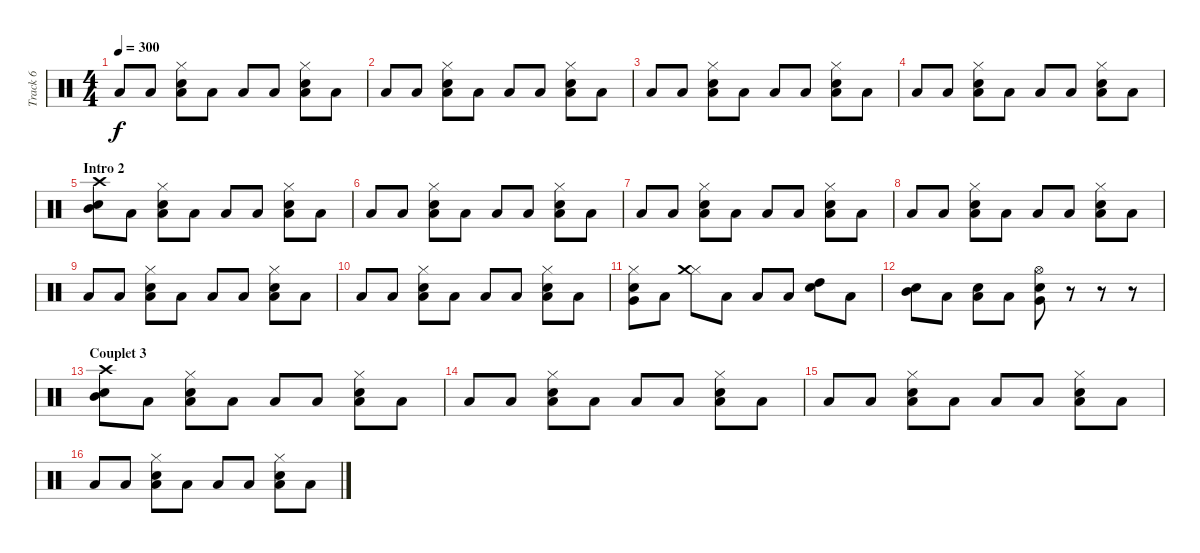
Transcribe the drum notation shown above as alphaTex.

\track ("Track 6" "Track 6") {instrument percussion}
\staff {score}
\articulation defaults
\ts (4 4)
\tempo 300
\clef neutral
\ks c "Low Floor Tom (hit)".8{dy f} "Low Floor Tom (hit)".8
("Electric Snare (hit)" "Low Tom (hit)" "Hi-Hat (closed)").8 "Low Floor Tom (hit)".8 "Low Floor Tom (hit)".8 "Low Floor Tom (hit)".8 ("Electric Snare (hit)" "Low Tom (hit)" "Hi-Hat (closed)").8 "Low Floor Tom (hit)".8 |
"Low Floor Tom (hit)".8 "Low Floor Tom (hit)".8 ("Electric Snare (hit)" "Low Tom (hit)" "Hi-Hat (closed)").8 "Low Floor Tom (hit)".8 "Low Floor Tom (hit)".8 "Low Floor Tom (hit)".8 ("Electric Snare (hit)" "Low Tom (hit)" "Hi-Hat (closed)").8 "Low Floor Tom (hit)".8 |
"Low Floor Tom (hit)".8 "Low Floor Tom (hit)".8 ("Electric Snare (hit)" "Low Tom (hit)" "Hi-Hat (closed)").8 "Low Floor Tom (hit)".8 "Low Floor Tom (hit)".8 "Low Floor Tom (hit)".8 ("Electric Snare (hit)" "Low Tom (hit)" "Hi-Hat (closed)").8 "Low Floor Tom (hit)".8 |
"Low Floor Tom (hit)".8 "Low Floor Tom (hit)".8 ("Electric Snare (hit)" "Low Tom (hit)" "Hi-Hat (closed)").8 "Low Floor Tom (hit)".8 "Low Floor Tom (hit)".8 "Low Floor Tom (hit)".8 ("Electric Snare (hit)" "Low Tom (hit)" "Hi-Hat (closed)").8 "Low Floor Tom (hit)".8 |
\section ("" "Intro 2")
("Snare (hit) 2" "Mid Tom (hit)" "Crash high (hit)").8 "Low Floor Tom (hit)".8 ("Electric Snare (hit)" "Low Tom (hit)" "Hi-Hat (closed)").8 "Low Floor Tom (hit)".8 "Low Floor Tom (hit)".8 "Low Floor Tom (hit)".8 ("Electric Snare (hit)" "Low Tom (hit)" "Hi-Hat (closed)").8 "Low Floor Tom (hit)".8 |
"Low Floor Tom (hit)".8 "Low Floor Tom (hit)".8 ("Electric Snare (hit)" "Low Tom (hit)" "Hi-Hat (closed)").8 "Low Floor Tom (hit)".8 "Low Floor Tom (hit)".8 "Low Floor Tom (hit)".8 ("Electric Snare (hit)" "Low Tom (hit)" "Hi-Hat (closed)").8 "Low Floor Tom (hit)".8 |
"Low Floor Tom (hit)".8 "Low Floor Tom (hit)".8 ("Electric Snare (hit)" "Low Tom (hit)" "Hi-Hat (closed)").8 "Low Floor Tom (hit)".8 "Low Floor Tom (hit)".8 "Low Floor Tom (hit)".8 ("Electric Snare (hit)" "Low Tom (hit)" "Hi-Hat (closed)").8 "Low Floor Tom (hit)".8 |
"Low Floor Tom (hit)".8 "Low Floor Tom (hit)".8 ("Electric Snare (hit)" "Low Tom (hit)" "Hi-Hat (closed)").8 "Low Floor Tom (hit)".8 "Low Floor Tom (hit)".8 "Low Floor Tom (hit)".8 ("Electric Snare (hit)" "Low Tom (hit)" "Hi-Hat (closed)").8 "Low Floor Tom (hit)".8 |
"Low Floor Tom (hit)".8 "Low Floor Tom (hit)".8 ("Electric Snare (hit)" "Low Tom (hit)" "Hi-Hat (closed)").8 "Low Floor Tom (hit)".8 "Low Floor Tom (hit)".8 "Low Floor Tom (hit)".8 ("Electric Snare (hit)" "Low Tom (hit)" "Hi-Hat (closed)").8 "Low Floor Tom (hit)".8 |
"Low Floor Tom (hit)".8 "Low Floor Tom (hit)".8 ("Electric Snare (hit)" "Low Tom (hit)" "Hi-Hat (closed)").8 "Low Floor Tom (hit)".8 "Low Floor Tom (hit)".8 "Low Floor Tom (hit)".8 ("Electric Snare (hit)" "Low Tom (hit)" "Hi-Hat (closed)").8 "Low Floor Tom (hit)".8 |
("Snare (hit) 2" "Very Low Tom (hit)" "Hi-Hat (closed)").8 "Low Floor Tom (hit)".8 ("Hi-Hat (closed)" "Crash medium (hit)").8 "Low Floor Tom (hit)".8 "Low Floor Tom (hit)".8 "Low Floor Tom (hit)".8 ("High Tom (hit)" "Snare (hit) 2").8 "Low Floor Tom (hit)".8 |
("Mid Tom (hit)" "Snare (hit) 2").8 "Low Floor Tom (hit)".8 ("Low Tom (hit)" "Snare (hit) 2").8 "Low Floor Tom (hit)".8 ("Very Low Tom (hit)" "Snare (hit) 2" "Hi-Hat (open)").8 r.8 r.8 r.8 |
\section ("" "Couplet 3")
("Snare (hit) 2" "Mid Tom (hit)" "Crash high (hit)").8 "Low Floor Tom (hit)".8 ("Electric Snare (hit)" "Low Tom (hit)" "Hi-Hat (closed)").8 "Low Floor Tom (hit)".8 "Low Floor Tom (hit)".8 "Low Floor Tom (hit)".8 ("Electric Snare (hit)" "Low Tom (hit)" "Hi-Hat (closed)").8 "Low Floor Tom (hit)".8 |
"Low Floor Tom (hit)".8 "Low Floor Tom (hit)".8 ("Electric Snare (hit)" "Low Tom (hit)" "Hi-Hat (closed)").8 "Low Floor Tom (hit)".8 "Low Floor Tom (hit)".8 "Low Floor Tom (hit)".8 ("Electric Snare (hit)" "Low Tom (hit)" "Hi-Hat (closed)").8 "Low Floor Tom (hit)".8 |
"Low Floor Tom (hit)".8 "Low Floor Tom (hit)".8 ("Electric Snare (hit)" "Low Tom (hit)" "Hi-Hat (closed)").8 "Low Floor Tom (hit)".8 "Low Floor Tom (hit)".8 "Low Floor Tom (hit)".8 ("Electric Snare (hit)" "Low Tom (hit)" "Hi-Hat (closed)").8 "Low Floor Tom (hit)".8 |
"Low Floor Tom (hit)".8 "Low Floor Tom (hit)".8 ("Electric Snare (hit)" "Low Tom (hit)" "Hi-Hat (closed)").8 "Low Floor Tom (hit)".8 "Low Floor Tom (hit)".8 "Low Floor Tom (hit)".8 ("Electric Snare (hit)" "Low Tom (hit)" "Hi-Hat (closed)").8 "Low Floor Tom (hit)".8
